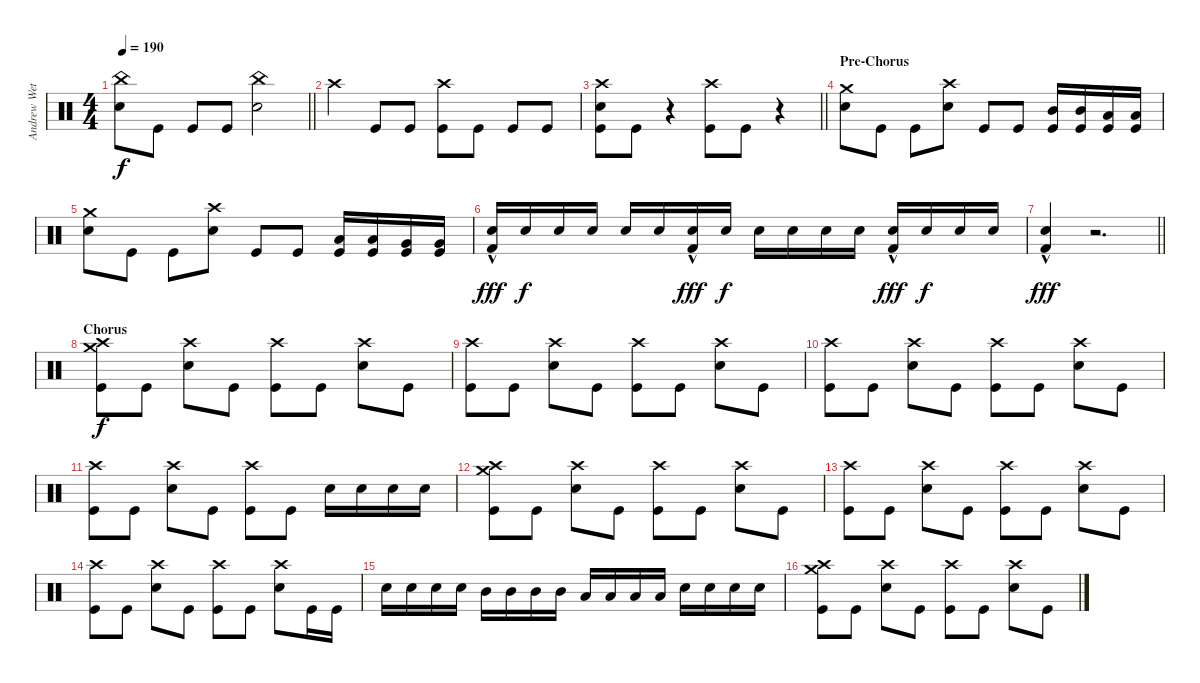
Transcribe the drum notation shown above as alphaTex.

\track ("Andrew Wetzel" "Andrew Wet") {instrument percussion}
\staff {score}
\articulation defaults
\ts (4 4)
\tempo 190
\clef neutral
\barLineRight lightlight
\ks c
("China (hit)" "Snare (hit) 2").8{dy f} "Kick (hit)".8 "Kick (hit)".8 "Kick (hit)".8 ("China (hit)" "Snare (hit) 2").2 |
"Crash high (hit)".4 "Kick (hit)".8 "Kick (hit)".8 ("Crash high (hit)" "Kick (hit)").8 "Kick (hit)".8 "Kick (hit)".8 "Kick (hit)".8 |
\barLineRight lightlight
("Crash high (hit)" "Snare (hit) 2" "Kick (hit)").8 "Kick (hit)".8 r.4 ("Crash high (hit)" "Kick (hit)").8 "Kick (hit)".8 r.4 |
\section ("" "Pre-Chorus")
("Crash medium (hit)" "Snare (hit) 2").8 "Kick (hit)".8 "Kick (hit)".8 ("Crash high (hit)" "Snare (hit) 2").8 "Kick (hit)".8 "Kick (hit)".8 ("Mid Tom (hit)" "Kick (hit)").16 ("Mid Tom (hit)" "Kick (hit)").16 ("Low Tom (hit)" "Kick (hit)").16 ("Low Tom (hit)" "Kick (hit)").16 |
("Crash medium (hit)" "Snare (hit) 2").8 "Kick (hit)".8 "Kick (hit)".8 ("Crash high (hit)" "Snare (hit) 2").8 "Kick (hit)".8 "Kick (hit)".8 ("Low Tom (hit)" "Kick (hit)").16 ("Low Tom (hit)" "Kick (hit)").16 ("Very Low Tom (hit)" "Kick (hit)").16 ("Very Low Tom (hit)" "Kick (hit)").16 |
("Snare (hit) 2"{hac} "Kick (hit) 2"{hac}).16{dy fff} "Snare (hit) 2".16{dy f} "Snare (hit) 2".16 "Snare (hit) 2".16 "Snare (hit) 2".16 "Snare (hit) 2".16 ("Snare (hit) 2"{hac} "Kick (hit) 2"{hac}).16{dy fff} "Snare (hit) 2".16{dy f} "Snare (hit) 2".16 "Snare (hit) 2".16 "Snare (hit) 2".16 "Snare (hit) 2".16 ("Snare (hit) 2"{hac} "Kick (hit) 2"{hac}).16{dy fff} "Snare (hit) 2".16{dy f} "Snare (hit) 2".16 "Snare (hit) 2".16 |
\barLineRight lightlight
("Snare (hit) 2"{hac} "Kick (hit) 2"{hac}).4{dy fff} r.2{d} |
\section ("" "Chorus")
("Crash high (hit)" "Crash medium (hit)" "Kick (hit)").8{dy f} "Kick (hit)".8 ("Crash high (hit)" "Snare (hit) 2").8 "Kick (hit)".8 ("Crash high (hit)" "Kick (hit)").8 "Kick (hit)".8 ("Crash high (hit)" "Snare (hit) 2").8 "Kick (hit)".8 |
("Crash high (hit)" "Kick (hit)").8 "Kick (hit)".8 ("Crash high (hit)" "Snare (hit) 2").8 "Kick (hit)".8 ("Crash high (hit)" "Kick (hit)").8 "Kick (hit)".8 ("Crash high (hit)" "Snare (hit) 2").8 "Kick (hit)".8 |
("Crash high (hit)" "Kick (hit)").8 "Kick (hit)".8 ("Crash high (hit)" "Snare (hit) 2").8 "Kick (hit)".8 ("Crash high (hit)" "Kick (hit)").8 "Kick (hit)".8 ("Crash high (hit)" "Snare (hit) 2").8 "Kick (hit)".8 |
("Crash high (hit)" "Kick (hit)").8 "Kick (hit)".8 ("Crash high (hit)" "Snare (hit) 2").8 "Kick (hit)".8 ("Crash high (hit)" "Kick (hit)").8 "Kick (hit)".8 "Snare (hit) 2".16 "Snare (hit) 2".16 "Snare (hit) 2".16 "Snare (hit) 2".16 |
("Crash high (hit)" "Crash medium (hit)" "Kick (hit)").8 "Kick (hit)".8 ("Crash high (hit)" "Snare (hit) 2").8 "Kick (hit)".8 ("Crash high (hit)" "Kick (hit)").8 "Kick (hit)".8 ("Crash high (hit)" "Snare (hit) 2").8 "Kick (hit)".8 |
("Crash high (hit)" "Kick (hit)").8 "Kick (hit)".8 ("Crash high (hit)" "Snare (hit) 2").8 "Kick (hit)".8 ("Crash high (hit)" "Kick (hit)").8 "Kick (hit)".8 ("Crash high (hit)" "Snare (hit) 2").8 "Kick (hit)".8 |
("Crash high (hit)" "Kick (hit)").8 "Kick (hit)".8 ("Crash high (hit)" "Snare (hit) 2").8 "Kick (hit)".8 ("Crash high (hit)" "Kick (hit)").8 "Kick (hit)".8 ("Crash high (hit)" "Snare (hit) 2").8 "Kick (hit)".16 "Kick (hit)".16 |
"Snare (hit) 2".16 "Snare (hit) 2".16 "Snare (hit) 2".16 "Snare (hit) 2".16 "Mid Tom (hit)".16 "Mid Tom (hit)".16 "Mid Tom (hit)".16 "Mid Tom (hit)".16 "Low Tom (hit)".16 "Low Tom (hit)".16 "Low Tom (hit)".16 "Low Tom (hit)".16 "Snare (hit) 2".16 "Snare (hit) 2".16 "Snare (hit) 2".16 "Snare (hit) 2".16 |
("Crash high (hit)" "Crash medium (hit)" "Kick (hit)").8 "Kick (hit)".8 ("Crash high (hit)" "Snare (hit) 2").8 "Kick (hit)".8 ("Crash high (hit)" "Kick (hit)").8 "Kick (hit)".8 ("Crash high (hit)" "Snare (hit) 2").8 "Kick (hit)".8
